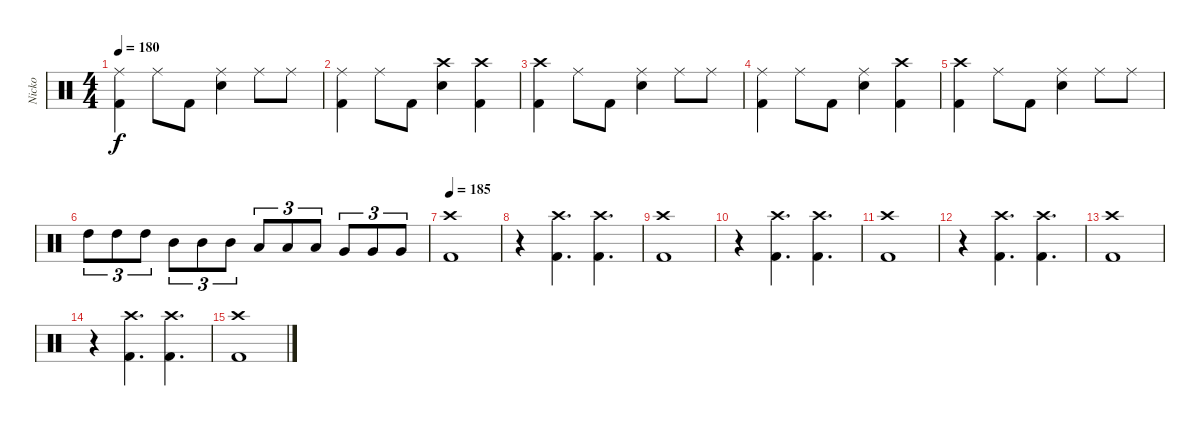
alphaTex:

\track ("Nicko" "Nicko") {instrument percussion}
\staff {score}
\articulation defaults
\ts (4 4)
\tempo 180
\clef neutral
\ks c
("Ride (middle)" "Kick (hit) 2").4{dy f} "Ride (middle)".8 "Kick (hit) 2".8 ("Ride (middle)" "Snare (hit) 2").4 "Ride (middle)".8 "Ride (middle)".8 |
("Ride (middle)" "Kick (hit) 2").4 "Ride (middle)".8 "Kick (hit) 2".8 ("Crash high (hit)" "Snare (hit) 2").4 ("Crash high (hit)" "Kick (hit) 2").4 |
("Crash high (hit)" "Kick (hit) 2").4 "Ride (middle)".8 "Kick (hit) 2".8 ("Ride (middle)" "Snare (hit) 2").4 "Ride (middle)".8 "Ride (middle)".8 |
("Ride (middle)" "Kick (hit) 2").4 "Ride (middle)".8 "Kick (hit) 2".8 ("Ride (middle)" "Snare (hit) 2").4 ("Crash high (hit)" "Kick (hit) 2").4 |
("Crash high (hit)" "Kick (hit) 2").4 "Ride (middle)".8 "Kick (hit) 2".8 ("Ride (middle)" "Snare (hit) 2").4 "Ride (middle)".8 "Ride (middle)".8 |
"High Tom (hit)".8{tu (3 2)} "High Tom (hit)".8{tu (3 2)} "High Tom (hit)".8{tu (3 2)} "Mid Tom (hit)".8{tu (3 2)} "Mid Tom (hit)".8{tu (3 2)} "Mid Tom (hit)".8{tu (3 2)} "Low Tom (hit)".8{tu (3 2)} "Low Tom (hit)".8{tu (3 2)} "Low Tom (hit)".8{tu (3 2)} "Very Low Tom (hit)".8{tu (3 2)} "Very Low Tom (hit)".8{tu (3 2)} "Very Low Tom (hit)".8{tu (3 2)} |
\tempo 185
("Crash high (hit)" "Kick (hit) 2").1 |
r.4 ("Crash high (hit)" "Kick (hit) 2").4{d} ("Crash high (hit)" "Kick (hit) 2").4{d} |
("Crash high (hit)" "Kick (hit) 2").1 |
r.4 ("Crash high (hit)" "Kick (hit) 2").4{d} ("Crash high (hit)" "Kick (hit) 2").4{d} |
("Crash high (hit)" "Kick (hit) 2").1 |
r.4 ("Crash high (hit)" "Kick (hit) 2").4{d} ("Crash high (hit)" "Kick (hit) 2").4{d} |
("Crash high (hit)" "Kick (hit) 2").1 |
r.4 ("Crash high (hit)" "Kick (hit) 2").4{d} ("Crash high (hit)" "Kick (hit) 2").4{d} |
("Crash high (hit)" "Kick (hit) 2").1
